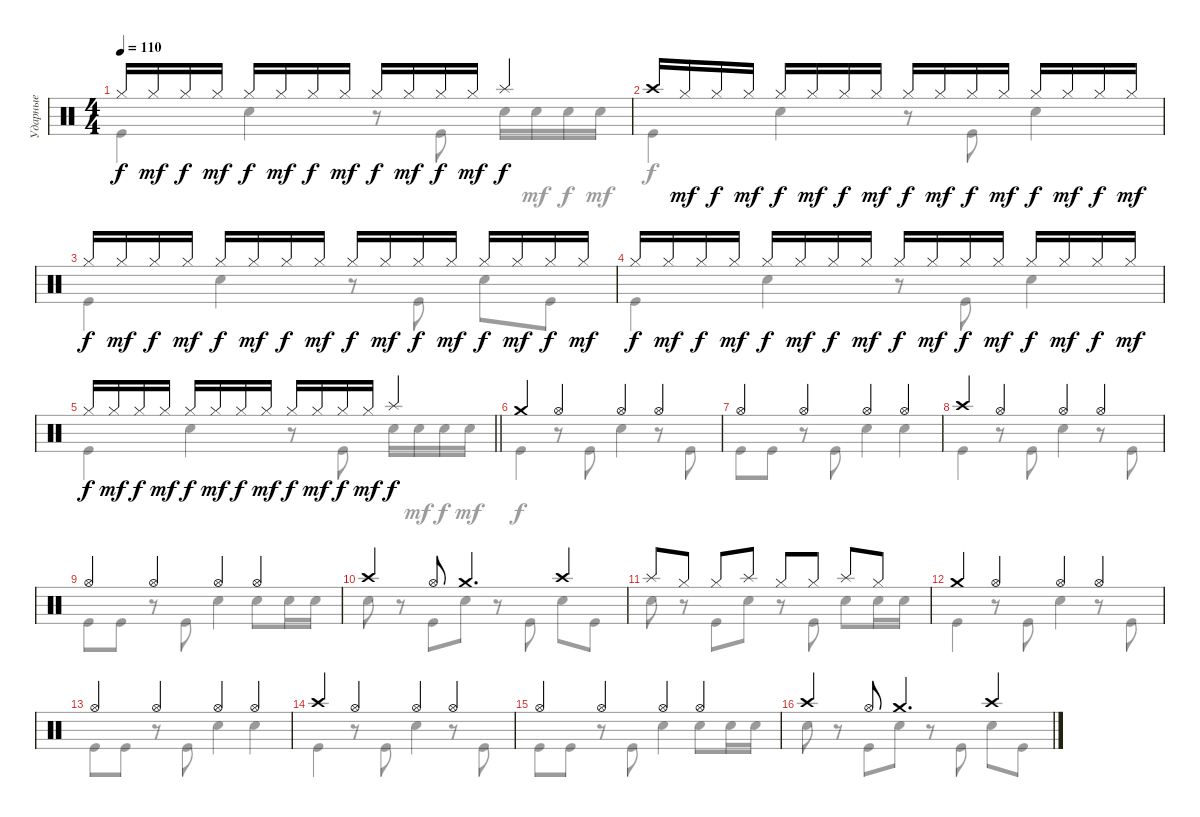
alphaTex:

\track ("Ударные" "Ударные") {instrument percussion}
\staff {score}
\articulation defaults
\voice
\ts (4 4)
\tempo 110
\clef neutral
\ks c "Hi-Hat (closed)".16{dy f} "Hi-Hat (closed)".16{dy mf} "Hi-Hat (closed)".16{dy f} "Hi-Hat (closed)".16{dy mf} "Hi-Hat (closed)".16{dy f} "Hi-Hat (closed)".16{dy mf} "Hi-Hat (closed)".16{dy f} "Hi-Hat (closed)".16{dy mf} "Hi-Hat (closed)".16{dy f} "Hi-Hat (closed)".16{dy mf} "Hi-Hat (closed)".16{dy f} "Hi-Hat (closed)".16{dy mf} "Splash (hit)".4{dy f}
|
"Crash high (hit)".16 "Hi-Hat (closed)".16{dy mf} "Hi-Hat (closed)".16{dy f} "Hi-Hat (closed)".16{dy mf} "Hi-Hat (closed)".16{dy f} "Hi-Hat (closed)".16{dy mf} "Hi-Hat (closed)".16{dy f} "Hi-Hat (closed)".16{dy mf} "Hi-Hat (closed)".16{dy f} "Hi-Hat (closed)".16{dy mf} "Hi-Hat (closed)".16{dy f} "Hi-Hat (closed)".16{dy mf} "Hi-Hat (closed)".16{dy f} "Hi-Hat (closed)".16{dy mf} "Hi-Hat (closed)".16{dy f} "Hi-Hat (closed)".16{dy mf} |
"Hi-Hat (closed)".16{dy f} "Hi-Hat (closed)".16{dy mf} "Hi-Hat (closed)".16{dy f} "Hi-Hat (closed)".16{dy mf} "Hi-Hat (closed)".16{dy f} "Hi-Hat (closed)".16{dy mf} "Hi-Hat (closed)".16{dy f} "Hi-Hat (closed)".16{dy mf} "Hi-Hat (closed)".16{dy f} "Hi-Hat (closed)".16{dy mf} "Hi-Hat (closed)".16{dy f} "Hi-Hat (closed)".16{dy mf} "Hi-Hat (closed)".16{dy f} "Hi-Hat (closed)".16{dy mf} "Hi-Hat (closed)".16{dy f} "Hi-Hat (closed)".16{dy mf} |
"Hi-Hat (closed)".16{dy f} "Hi-Hat (closed)".16{dy mf} "Hi-Hat (closed)".16{dy f} "Hi-Hat (closed)".16{dy mf} "Hi-Hat (closed)".16{dy f} "Hi-Hat (closed)".16{dy mf} "Hi-Hat (closed)".16{dy f} "Hi-Hat (closed)".16{dy mf} "Hi-Hat (closed)".16{dy f} "Hi-Hat (closed)".16{dy mf} "Hi-Hat (closed)".16{dy f} "Hi-Hat (closed)".16{dy mf} "Hi-Hat (closed)".16{dy f} "Hi-Hat (closed)".16{dy mf} "Hi-Hat (closed)".16{dy f} "Hi-Hat (closed)".16{dy mf} |
\barLineRight lightlight "Hi-Hat (closed)".16{dy f} "Hi-Hat (closed)".16{dy mf} "Hi-Hat (closed)".16{dy f} "Hi-Hat (closed)".16{dy mf} "Hi-Hat (closed)".16{dy f} "Hi-Hat (closed)".16{dy mf} "Hi-Hat (closed)".16{dy f} "Hi-Hat (closed)".16{dy mf} "Hi-Hat (closed)".16{dy f} "Hi-Hat (closed)".16{dy mf} "Hi-Hat (closed)".16{dy f} "Hi-Hat (closed)".16{dy mf} "Splash (hit)".4{dy f}
|
"Crash medium (hit)".4 "Hi-Hat (open)".4 "Hi-Hat (open)".4 "Hi-Hat (open)".4 |
"Hi-Hat (open)".4 "Hi-Hat (open)".4 "Hi-Hat (open)".4 "Hi-Hat (open)".4 |
"Crash high (hit)".4 "Hi-Hat (open)".4 "Hi-Hat (open)".4 "Hi-Hat (open)".4 |
"Hi-Hat (open)".4 "Hi-Hat (open)".4 "Hi-Hat (open)".4 "Hi-Hat (open)".4 |
"Crash high (hit)".4 "Hi-Hat (open)".8 "Crash medium (hit)".4{d} "Crash high (hit)".4 |
"Splash (hit)".8 "Hi-Hat (closed)".8 "Hi-Hat (closed)".8 "Splash (hit)".8 "Hi-Hat (closed)".8 "Hi-Hat (closed)".8 "Splash (hit)".8 "Hi-Hat (closed)".8 |
"Crash medium (hit)".4 "Hi-Hat (open)".4 "Hi-Hat (open)".4 "Hi-Hat (open)".4 |
"Hi-Hat (open)".4 "Hi-Hat (open)".4 "Hi-Hat (open)".4 "Hi-Hat (open)".4 |
"Crash high (hit)".4 "Hi-Hat (open)".4 "Hi-Hat (open)".4 "Hi-Hat (open)".4 |
"Hi-Hat (open)".4 "Hi-Hat (open)".4 "Hi-Hat (open)".4 "Hi-Hat (open)".4 |
"Crash high (hit)".4 "Hi-Hat (open)".8 "Crash medium (hit)".4{d} "Crash high (hit)".4
\voice
\clef neutral
\ottava regular
\simile none
\ks c "Kick (hit)".4{dy f} "Snare (hit) 2".4
r.8 "Kick (hit)".8 "Snare (hit) 2".16 "Snare (hit) 2".16{dy mf} "Snare (hit) 2".16{dy f} "Snare (hit) 2".16{dy mf} |
"Kick (hit)".4{dy f} "Snare (hit) 2".4 r.8 "Kick (hit)".8 "Snare (hit) 2".4 |
"Kick (hit)".4 "Snare (hit) 2".4 r.8 "Kick (hit)".8 "Snare (hit) 2".8 "Kick (hit)".8 |
"Kick (hit)".4 "Snare (hit) 2".4 r.8 "Kick (hit)".8 "Snare (hit) 2".4 |
\barLineRight lightlight "Kick (hit)".4 "Snare (hit) 2".4
r.8 "Kick (hit)".8 "Snare (hit) 2".16 "Snare (hit) 2".16{dy mf} "Snare (hit) 2".16{dy f} "Snare (hit) 2".16{dy mf} |
"Kick (hit)".4{dy f} r.8 "Kick (hit)".8 "Snare (hit) 2".4 r.8 "Kick (hit)".8 |
"Kick (hit)".8 "Kick (hit)".8 r.8 "Kick (hit)".8 "Snare (hit) 2".4 "Snare (hit) 2".4 |
"Kick (hit)".4 r.8 "Kick (hit)".8 "Snare (hit) 2".4 r.8 "Kick (hit)".8 |
"Kick (hit)".8 "Kick (hit)".8 r.8 "Kick (hit)".8 "Snare (hit) 2".4 "Snare (hit) 2".8 "Snare (hit) 2".16 "Snare (hit) 2".16 |
"Snare (hit) 2".8 r.8 "Kick (hit)".8 "Snare (hit) 2".8 r.8 "Kick (hit)".8 "Snare (hit) 2".8 "Kick (hit)".8 |
"Snare (hit) 2".8 r.8 "Kick (hit)".8 "Snare (hit) 2".8 r.8 "Kick (hit)".8 "Snare (hit) 2".8 "Snare (hit) 2".16 "Snare (hit) 2".16 |
"Kick (hit)".4 r.8 "Kick (hit)".8 "Snare (hit) 2".4 r.8 "Kick (hit)".8 |
"Kick (hit)".8 "Kick (hit)".8 r.8 "Kick (hit)".8 "Snare (hit) 2".4 "Snare (hit) 2".4 |
"Kick (hit)".4 r.8 "Kick (hit)".8 "Snare (hit) 2".4 r.8 "Kick (hit)".8 |
"Kick (hit)".8 "Kick (hit)".8 r.8 "Kick (hit)".8 "Snare (hit) 2".4 "Snare (hit) 2".8 "Snare (hit) 2".16 "Snare (hit) 2".16 |
"Snare (hit) 2".8 r.8 "Kick (hit)".8 "Snare (hit) 2".8 r.8 "Kick (hit)".8 "Snare (hit) 2".8 "Kick (hit)".8
